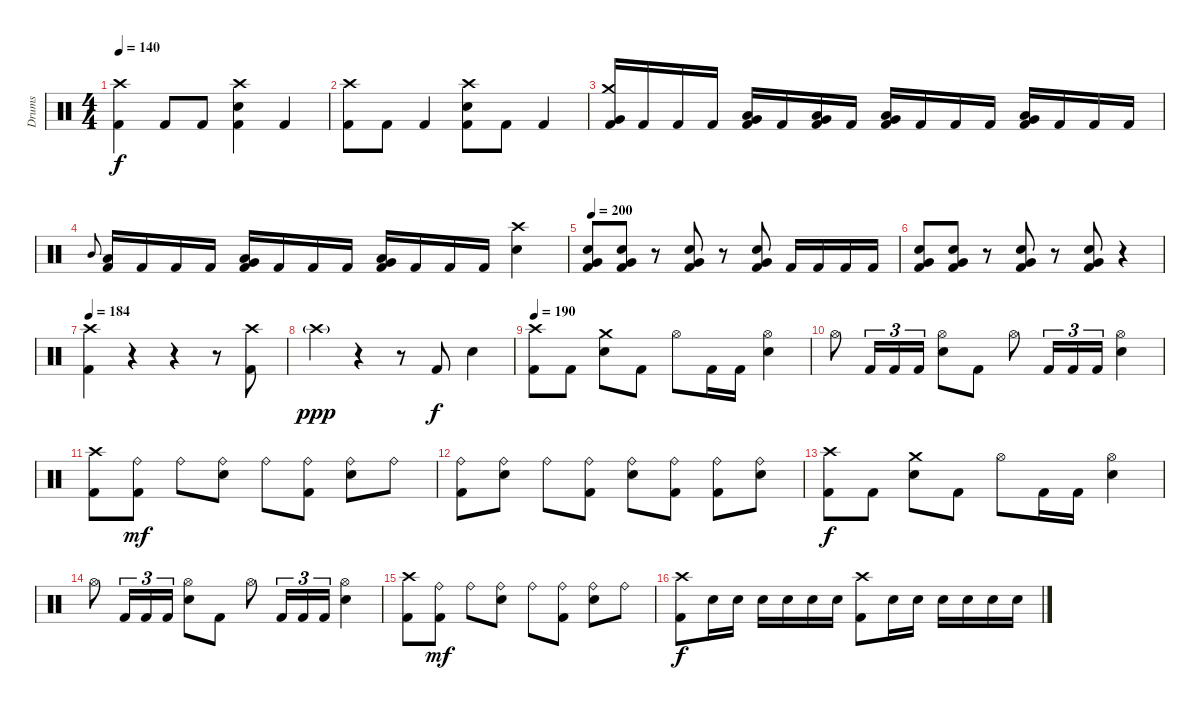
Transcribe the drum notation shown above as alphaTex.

\track ("Drums" "Drums") {instrument percussion}
\staff {score}
\articulation defaults
\ts (4 4)
\tempo 140
\clef neutral
\ks c
("Crash high (hit)" "Kick (hit) 2").4{dy f} "Kick (hit) 2".8 "Kick (hit) 2".8 ("Crash high (hit)" "Electric Snare (hit)" "Kick (hit) 2").4 "Kick (hit) 2".4 |
("Crash high (hit)" "Kick (hit) 2").8 "Kick (hit) 2".8 "Kick (hit) 2".4 ("Crash high (hit)" "Electric Snare (hit)" "Kick (hit) 2").8 "Kick (hit) 2".8 "Kick (hit) 2".4 |
("Crash medium (hit)" "Very Low Tom (hit)" "Kick (hit) 2").16 "Kick (hit) 2".16 "Kick (hit) 2".16 "Kick (hit) 2".16 ("Low Floor Tom (hit)" "Very Low Tom (hit)" "Kick (hit) 2").16 "Kick (hit) 2".16 ("Low Floor Tom (hit)" "Very Low Tom (hit)" "Kick (hit) 2").16 "Kick (hit) 2".16 ("Low Floor Tom (hit)" "Very Low Tom (hit)" "Kick (hit) 2").16 "Kick (hit) 2".16 "Kick (hit) 2".16 "Kick (hit) 2".16 ("Low Floor Tom (hit)" "Very Low Tom (hit)" "Kick (hit) 2").16 "Kick (hit) 2".16 "Kick (hit) 2".16 "Kick (hit) 2".16 |
"Mid Tom (hit)".8{gr onbeat} ("Low Tom (hit)" "Kick (hit) 2").16 "Kick (hit) 2".16 "Kick (hit) 2".16 "Kick (hit) 2".16 ("Low Floor Tom (hit)" "Very Low Tom (hit)" "Kick (hit) 2").16 "Kick (hit) 2".16 "Kick (hit) 2".16 "Kick (hit) 2".16 ("Low Floor Tom (hit)" "Very Low Tom (hit)" "Kick (hit) 2").16 "Kick (hit) 2".16 "Kick (hit) 2".16 "Kick (hit) 2".16 ("Crash high (hit)" "Electric Snare (hit)").4 |
\tempo 200
("Electric Snare (hit)" "Very Low Tom (hit)" "Kick (hit) 2").8 ("Electric Snare (hit)" "Very Low Tom (hit)" "Kick (hit) 2").8 r.8 ("Electric Snare (hit)" "Very Low Tom (hit)" "Kick (hit) 2").8 r.8 ("Electric Snare (hit)" "Very Low Tom (hit)" "Kick (hit) 2").8 "Kick (hit) 2".16 "Kick (hit) 2".16 "Kick (hit) 2".16 "Kick (hit) 2".16 |
("Electric Snare (hit)" "Very Low Tom (hit)" "Kick (hit) 2").8 ("Electric Snare (hit)" "Very Low Tom (hit)" "Kick (hit) 2").8 r.8 ("Electric Snare (hit)" "Very Low Tom (hit)" "Kick (hit) 2").8 r.8 ("Electric Snare (hit)" "Very Low Tom (hit)" "Kick (hit) 2").8 r.4 |
\tempo 184
("Crash high (hit)" "Kick (hit) 2").4 r.4 r.4 r.8 ("Crash high (hit)" "Kick (hit) 2").8 |
"Crash high (hit)"{g}.4{dy ppp} r.4 r.8 "Kick (hit) 2".8{dy f} "Electric Snare (hit)".4 |
\tempo 190
("Crash high (hit)" "Kick (hit) 2").8 "Kick (hit) 2".8 ("Crash medium (hit)" "Electric Snare (hit)").8 "Kick (hit) 2".8 "Hi-Hat (open)".8 "Kick (hit) 2".16 "Kick (hit) 2".16 ("Hi-Hat (open)" "Electric Snare (hit)").4 |
"Hi-Hat (open)".8 "Kick (hit) 2".16{tu (3 2)} "Kick (hit) 2".16{tu (3 2)} "Kick (hit) 2".16{tu (3 2)} ("Hi-Hat (open)" "Electric Snare (hit)").8 "Kick (hit) 2".8 "Hi-Hat (open)".8 "Kick (hit) 2".16{tu (3 2)} "Kick (hit) 2".16{tu (3 2)} "Kick (hit) 2".16{tu (3 2)} ("Hi-Hat (open)" "Electric Snare (hit)").4 |
("Crash high (hit)" "Kick (hit) 2").8 ("Ride (bell)" "Kick (hit) 2").8{dy mf} "Ride (bell)".8 ("Ride (bell)" "Electric Snare (hit)").8 "Ride (bell)".8 ("Ride (bell)" "Kick (hit) 2").8 ("Ride (bell)" "Electric Snare (hit)").8 "Ride (bell)".8 |
("Ride (bell)" "Kick (hit) 2").8 ("Ride (bell)" "Electric Snare (hit)").8 "Ride (bell)".8 ("Ride (bell)" "Kick (hit) 2").8 ("Ride (bell)" "Electric Snare (hit)").8 ("Ride (bell)" "Kick (hit) 2").8 ("Ride (bell)" "Kick (hit) 2").8 ("Ride (bell)" "Electric Snare (hit)").8 |
("Crash high (hit)" "Kick (hit) 2").8{dy f} "Kick (hit) 2".8 ("Crash medium (hit)" "Electric Snare (hit)").8 "Kick (hit) 2".8 "Hi-Hat (open)".8 "Kick (hit) 2".16 "Kick (hit) 2".16 ("Hi-Hat (open)" "Electric Snare (hit)").4 |
"Hi-Hat (open)".8 "Kick (hit) 2".16{tu (3 2)} "Kick (hit) 2".16{tu (3 2)} "Kick (hit) 2".16{tu (3 2)} ("Hi-Hat (open)" "Electric Snare (hit)").8 "Kick (hit) 2".8 "Hi-Hat (open)".8 "Kick (hit) 2".16{tu (3 2)} "Kick (hit) 2".16{tu (3 2)} "Kick (hit) 2".16{tu (3 2)} ("Hi-Hat (open)" "Electric Snare (hit)").4 |
("Crash high (hit)" "Kick (hit) 2").8 ("Ride (bell)" "Kick (hit) 2").8{dy mf} "Ride (bell)".8 ("Ride (bell)" "Electric Snare (hit)").8 "Ride (bell)".8 ("Ride (bell)" "Kick (hit) 2").8 ("Ride (bell)" "Electric Snare (hit)").8 "Ride (bell)".8 |
("Crash high (hit)" "Kick (hit) 2").8{dy f} "Electric Snare (hit)".16 "Electric Snare (hit)".16 "Electric Snare (hit)".16 "Electric Snare (hit)".16 "Electric Snare (hit)".16 "Electric Snare (hit)".16 ("Crash high (hit)" "Kick (hit) 2").8 "Electric Snare (hit)".16 "Electric Snare (hit)".16 "Electric Snare (hit)".16 "Electric Snare (hit)".16 "Electric Snare (hit)".16 "Electric Snare (hit)".16
